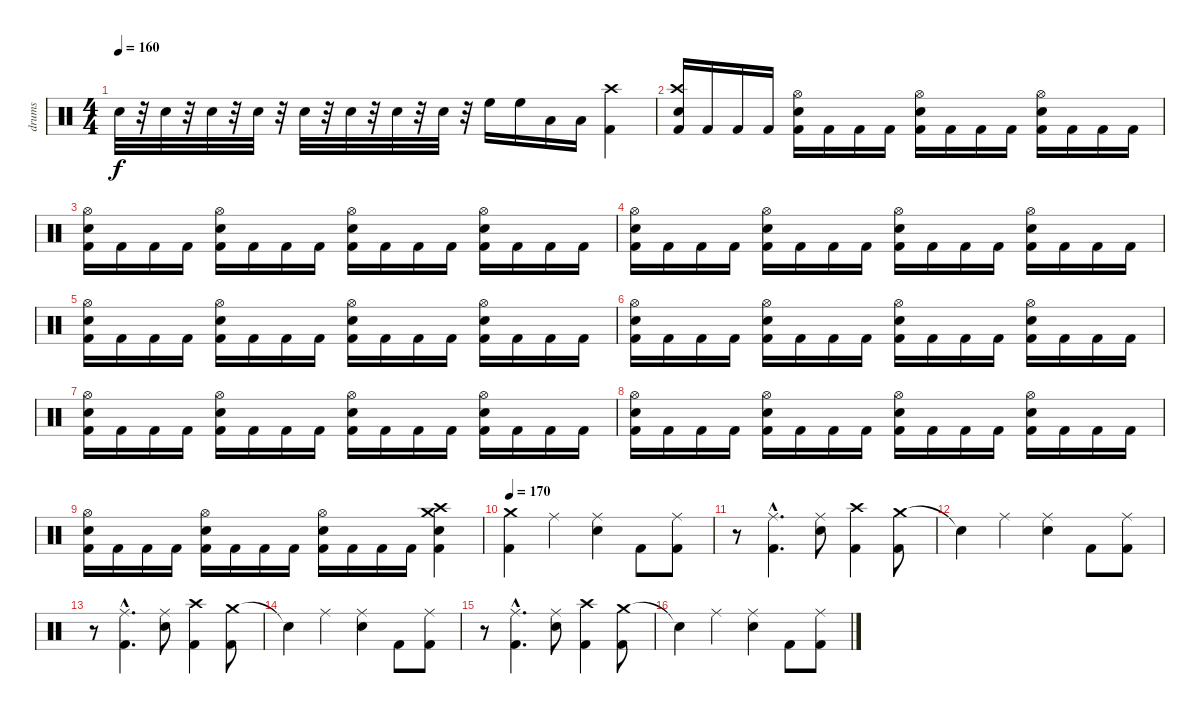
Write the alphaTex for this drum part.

\track ("drums" "drums") {instrument percussion}
\staff {score}
\articulation defaults
\ts (4 4)
\tempo 160
\clef neutral
\ks c "Snare (hit) 2".32{dy f}
r.32 "Snare (hit) 2".32 r.32 "Snare (hit) 2".32 r.32 "Snare (hit) 2".32 r.32 "Snare (hit) 2".32 r.32 "Snare (hit) 2".32 r.32 "Snare (hit) 2".32 r.32 "Snare (hit) 2".32 r.32 "High Floor Tom (hit)".16 "High Floor Tom (hit)".16 "Low Tom (hit)".16 "Low Tom (hit)".16 ("Crash high (hit)" "Kick (hit) 2").4 |
("Crash high (hit)" "Snare (hit) 2" "Kick (hit) 2").16 "Kick (hit) 2".16 "Kick (hit) 2".16 "Kick (hit) 2".16 ("Hi-Hat (open)" "Snare (hit) 2" "Kick (hit) 2").16 "Kick (hit) 2".16 "Kick (hit) 2".16 "Kick (hit) 2".16 ("Hi-Hat (open)" "Snare (hit) 2" "Kick (hit) 2").16 "Kick (hit) 2".16 "Kick (hit) 2".16 "Kick (hit) 2".16 ("Hi-Hat (open)" "Snare (hit) 2" "Kick (hit) 2").16 "Kick (hit) 2".16 "Kick (hit) 2".16 "Kick (hit) 2".16 |
("Hi-Hat (open)" "Snare (hit) 2" "Kick (hit) 2").16 "Kick (hit) 2".16 "Kick (hit) 2".16 "Kick (hit) 2".16 ("Hi-Hat (open)" "Snare (hit) 2" "Kick (hit) 2").16 "Kick (hit) 2".16 "Kick (hit) 2".16 "Kick (hit) 2".16 ("Hi-Hat (open)" "Snare (hit) 2" "Kick (hit) 2").16 "Kick (hit) 2".16 "Kick (hit) 2".16 "Kick (hit) 2".16 ("Hi-Hat (open)" "Snare (hit) 2" "Kick (hit) 2").16 "Kick (hit) 2".16 "Kick (hit) 2".16 "Kick (hit) 2".16 |
("Hi-Hat (open)" "Snare (hit) 2" "Kick (hit) 2").16 "Kick (hit) 2".16 "Kick (hit) 2".16 "Kick (hit) 2".16 ("Hi-Hat (open)" "Snare (hit) 2" "Kick (hit) 2").16 "Kick (hit) 2".16 "Kick (hit) 2".16 "Kick (hit) 2".16 ("Hi-Hat (open)" "Snare (hit) 2" "Kick (hit) 2").16 "Kick (hit) 2".16 "Kick (hit) 2".16 "Kick (hit) 2".16 ("Hi-Hat (open)" "Snare (hit) 2" "Kick (hit) 2").16 "Kick (hit) 2".16 "Kick (hit) 2".16 "Kick (hit) 2".16 |
("Hi-Hat (open)" "Snare (hit) 2" "Kick (hit) 2").16 "Kick (hit) 2".16 "Kick (hit) 2".16 "Kick (hit) 2".16 ("Hi-Hat (open)" "Snare (hit) 2" "Kick (hit) 2").16 "Kick (hit) 2".16 "Kick (hit) 2".16 "Kick (hit) 2".16 ("Hi-Hat (open)" "Snare (hit) 2" "Kick (hit) 2").16 "Kick (hit) 2".16 "Kick (hit) 2".16 "Kick (hit) 2".16 ("Hi-Hat (open)" "Snare (hit) 2" "Kick (hit) 2").16 "Kick (hit) 2".16 "Kick (hit) 2".16 "Kick (hit) 2".16 |
("Hi-Hat (open)" "Snare (hit) 2" "Kick (hit) 2").16 "Kick (hit) 2".16 "Kick (hit) 2".16 "Kick (hit) 2".16 ("Hi-Hat (open)" "Snare (hit) 2" "Kick (hit) 2").16 "Kick (hit) 2".16 "Kick (hit) 2".16 "Kick (hit) 2".16 ("Hi-Hat (open)" "Snare (hit) 2" "Kick (hit) 2").16 "Kick (hit) 2".16 "Kick (hit) 2".16 "Kick (hit) 2".16 ("Hi-Hat (open)" "Snare (hit) 2" "Kick (hit) 2").16 "Kick (hit) 2".16 "Kick (hit) 2".16 "Kick (hit) 2".16 |
("Hi-Hat (open)" "Snare (hit) 2" "Kick (hit) 2").16 "Kick (hit) 2".16 "Kick (hit) 2".16 "Kick (hit) 2".16 ("Hi-Hat (open)" "Snare (hit) 2" "Kick (hit) 2").16 "Kick (hit) 2".16 "Kick (hit) 2".16 "Kick (hit) 2".16 ("Hi-Hat (open)" "Snare (hit) 2" "Kick (hit) 2").16 "Kick (hit) 2".16 "Kick (hit) 2".16 "Kick (hit) 2".16 ("Hi-Hat (open)" "Snare (hit) 2" "Kick (hit) 2").16 "Kick (hit) 2".16 "Kick (hit) 2".16 "Kick (hit) 2".16 |
("Hi-Hat (open)" "Snare (hit) 2" "Kick (hit) 2").16 "Kick (hit) 2".16 "Kick (hit) 2".16 "Kick (hit) 2".16 ("Hi-Hat (open)" "Snare (hit) 2" "Kick (hit) 2").16 "Kick (hit) 2".16 "Kick (hit) 2".16 "Kick (hit) 2".16 ("Hi-Hat (open)" "Snare (hit) 2" "Kick (hit) 2").16 "Kick (hit) 2".16 "Kick (hit) 2".16 "Kick (hit) 2".16 ("Hi-Hat (open)" "Snare (hit) 2" "Kick (hit) 2").16 "Kick (hit) 2".16 "Kick (hit) 2".16 "Kick (hit) 2".16 |
("Hi-Hat (open)" "Snare (hit) 2" "Kick (hit) 2").16 "Kick (hit) 2".16 "Kick (hit) 2".16 "Kick (hit) 2".16 ("Hi-Hat (open)" "Snare (hit) 2" "Kick (hit) 2").16 "Kick (hit) 2".16 "Kick (hit) 2".16 "Kick (hit) 2".16 ("Hi-Hat (open)" "Snare (hit) 2" "Kick (hit) 2").16 "Kick (hit) 2".16 "Kick (hit) 2".16 "Kick (hit) 2".16 ("Crash high (hit)" "Crash medium (hit)" "Snare (hit) 2" "Kick (hit) 2").4 |
\tempo 170
("Crash medium (hit)" "Kick (hit) 2").4 "Ride (middle)".4 ("Ride (middle)" "Snare (hit) 2").4 "Kick (hit) 2".8 ("Ride (middle)" "Kick (hit) 2").8 |
r.8 ("Ride (middle)"{hac} "Kick (hit) 2"{hac}).4{d} ("Ride (middle)" "Snare (hit) 2").8 ("Crash high (hit)" "Kick (hit) 2").4 ("Crash medium (hit)" "Kick (hit) 2").8 |
"Snare (hit)"{t}.4 "Ride (middle)".4 ("Ride (middle)" "Snare (hit) 2").4 "Kick (hit) 2".8 ("Ride (middle)" "Kick (hit) 2").8 |
r.8 ("Ride (middle)"{hac} "Kick (hit) 2"{hac}).4{d} ("Ride (middle)" "Snare (hit) 2").8 ("Crash high (hit)" "Kick (hit) 2").4 ("Crash medium (hit)" "Kick (hit) 2").8 |
"Snare (hit)"{t}.4 "Ride (middle)".4 ("Ride (middle)" "Snare (hit) 2").4 "Kick (hit) 2".8 ("Ride (middle)" "Kick (hit) 2").8 |
r.8 ("Ride (middle)"{hac} "Kick (hit) 2"{hac}).4{d} ("Ride (middle)" "Snare (hit) 2").8 ("Crash high (hit)" "Kick (hit) 2").4 ("Crash medium (hit)" "Kick (hit) 2").8 |
"Snare (hit)"{t}.4 "Ride (middle)".4 ("Ride (middle)" "Snare (hit) 2").4 "Kick (hit) 2".8 ("Ride (middle)" "Kick (hit) 2").8
